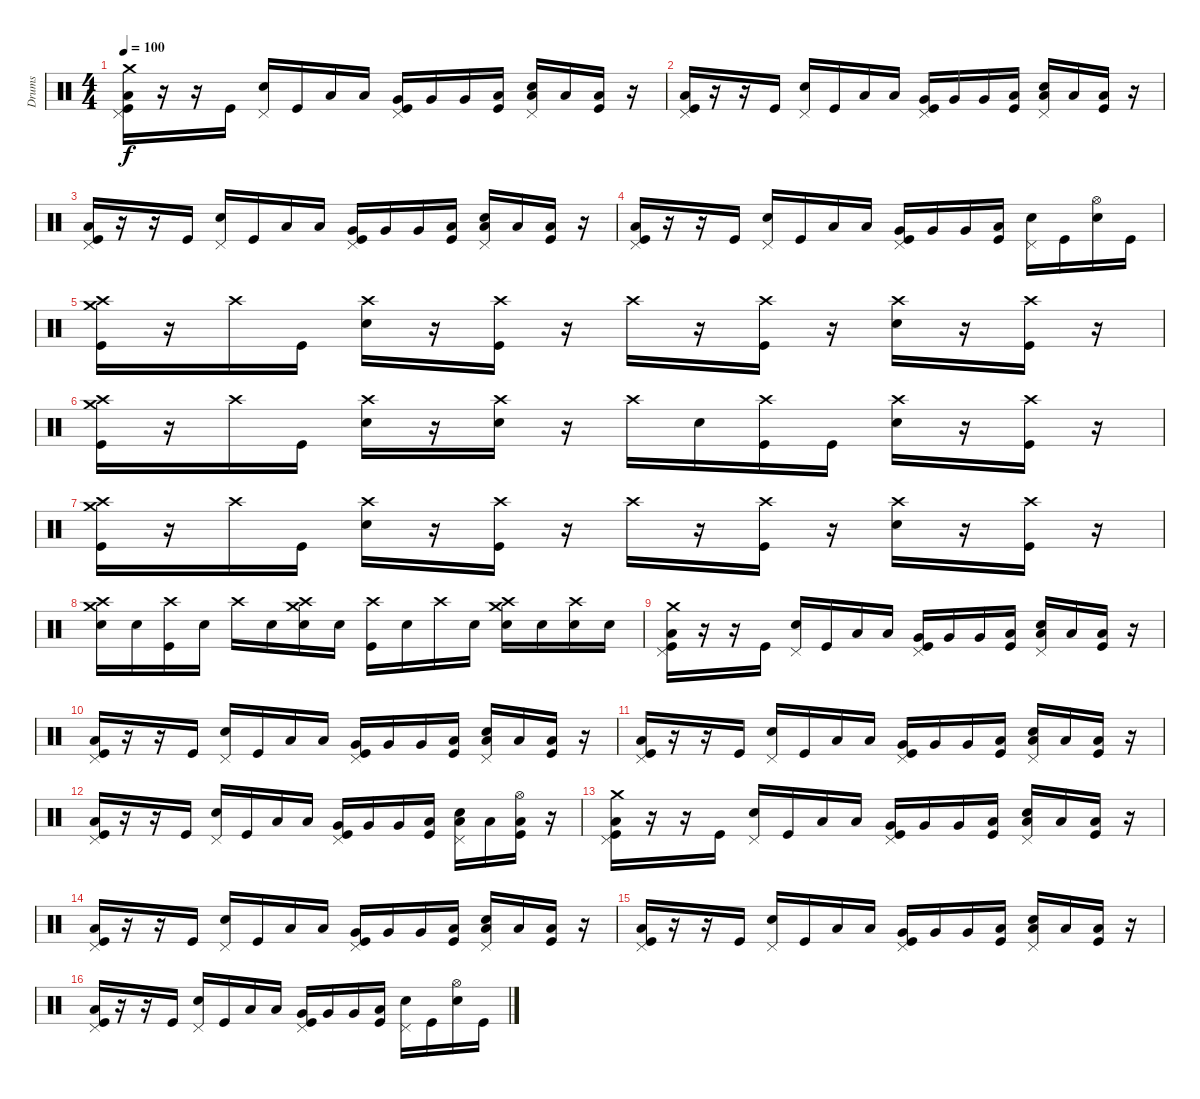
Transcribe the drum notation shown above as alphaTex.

\track ("Drums" "Drums") {instrument percussion}
\staff {score}
\articulation defaults
\ts (4 4)
\tempo 100
\clef neutral
\ks c
("Crash medium (hit)" "Pedal Hi-Hat (hit)" "Low Floor Tom (hit)" "Kick (hit)").16{dy f} r.16 r.16 "Kick (hit)".16 ("Pedal Hi-Hat (hit)" "Snare (hit) 2").16 "Kick (hit)".16 "Low Tom (hit)".16 "Low Tom (hit)".16 ("Pedal Hi-Hat (hit)" "Very Low Tom (hit)" "Kick (hit)").16 "Very Low Tom (hit)".16 "Very Low Tom (hit)".16 ("Low Floor Tom (hit)" "Kick (hit)").16 ("Pedal Hi-Hat (hit)" "Low Floor Tom (hit)" "Snare (hit) 2").16 "Low Floor Tom (hit)".16 ("Low Floor Tom (hit)" "Kick (hit)").16 r.16 |
("Pedal Hi-Hat (hit)" "Low Floor Tom (hit)" "Kick (hit)").16 r.16 r.16 "Kick (hit)".16 ("Pedal Hi-Hat (hit)" "Snare (hit) 2").16 "Kick (hit)".16 "Low Tom (hit)".16 "Low Tom (hit)".16 ("Pedal Hi-Hat (hit)" "Very Low Tom (hit)" "Kick (hit)").16 "Very Low Tom (hit)".16 "Very Low Tom (hit)".16 ("Low Floor Tom (hit)" "Kick (hit)").16 ("Pedal Hi-Hat (hit)" "Low Floor Tom (hit)" "Snare (hit) 2").16 "Low Floor Tom (hit)".16 ("Low Floor Tom (hit)" "Kick (hit)").16 r.16 |
("Pedal Hi-Hat (hit)" "Low Floor Tom (hit)" "Kick (hit)").16 r.16 r.16 "Kick (hit)".16 ("Pedal Hi-Hat (hit)" "Snare (hit) 2").16 "Kick (hit)".16 "Low Tom (hit)".16 "Low Tom (hit)".16 ("Pedal Hi-Hat (hit)" "Very Low Tom (hit)" "Kick (hit)").16 "Very Low Tom (hit)".16 "Very Low Tom (hit)".16 ("Low Floor Tom (hit)" "Kick (hit)").16 ("Pedal Hi-Hat (hit)" "Low Floor Tom (hit)" "Snare (hit) 2").16 "Low Floor Tom (hit)".16 ("Low Floor Tom (hit)" "Kick (hit)").16 r.16 |
("Pedal Hi-Hat (hit)" "Low Floor Tom (hit)" "Kick (hit)").16 r.16 r.16 "Kick (hit)".16 ("Pedal Hi-Hat (hit)" "Snare (hit) 2").16 "Kick (hit)".16 "Low Tom (hit)".16 "Low Tom (hit)".16 ("Pedal Hi-Hat (hit)" "Very Low Tom (hit)" "Kick (hit)").16 "Very Low Tom (hit)".16 "Very Low Tom (hit)".16 ("Low Floor Tom (hit)" "Kick (hit)").16 ("Pedal Hi-Hat (hit)" "Snare (hit) 2").16 "Kick (hit)".16 ("Hi-Hat (open)" "Snare (hit) 2").16 "Kick (hit)".16 |
("Crash medium (hit)" "Crash high (hit)" "Kick (hit)").16 r.16 "Crash high (hit)".16 "Kick (hit)".16 ("Crash high (hit)" "Snare (hit) 2").16 r.16 ("Crash high (hit)" "Kick (hit)").16 r.16 "Crash high (hit)".16 r.16 ("Crash high (hit)" "Kick (hit)").16 r.16 ("Crash high (hit)" "Snare (hit) 2").16 r.16 ("Crash high (hit)" "Kick (hit)").16 r.16 |
("Crash medium (hit)" "Crash high (hit)" "Kick (hit)").16 r.16 "Crash high (hit)".16 "Kick (hit)".16 ("Crash high (hit)" "Snare (hit) 2").16 r.16 ("Crash high (hit)" "Snare (hit) 2").16 r.16 "Crash high (hit)".16 "Snare (hit) 2".16 ("Crash high (hit)" "Kick (hit)").16 "Kick (hit)".16 ("Crash high (hit)" "Snare (hit) 2").16 r.16 ("Crash high (hit)" "Kick (hit)").16 r.16 |
("Crash medium (hit)" "Crash high (hit)" "Kick (hit)").16 r.16 "Crash high (hit)".16 "Kick (hit)".16 ("Crash high (hit)" "Snare (hit) 2").16 r.16 ("Crash high (hit)" "Kick (hit)").16 r.16 "Crash high (hit)".16 r.16 ("Crash high (hit)" "Kick (hit)").16 r.16 ("Crash high (hit)" "Snare (hit) 2").16 r.16 ("Crash high (hit)" "Kick (hit)").16 r.16 |
("Crash medium (hit)" "Crash high (hit)" "Snare (hit) 2").16 "Snare (hit) 2".16 ("Crash high (hit)" "Kick (hit)").16 "Snare (hit) 2".16 "Crash high (hit)".16 "Snare (hit) 2".16 ("Crash medium (hit)" "Crash high (hit)" "Snare (hit) 2").16 "Snare (hit) 2".16 ("Crash high (hit)" "Kick (hit)").16 "Snare (hit) 2".16 "Crash high (hit)".16 "Snare (hit) 2".16 ("Crash medium (hit)" "Crash high (hit)" "Snare (hit) 2").16 "Snare (hit) 2".16 ("Crash high (hit)" "Snare (hit) 2").16 "Snare (hit) 2".16 |
("Crash medium (hit)" "Pedal Hi-Hat (hit)" "Low Floor Tom (hit)" "Kick (hit)").16 r.16 r.16 "Kick (hit)".16 ("Pedal Hi-Hat (hit)" "Snare (hit) 2").16 "Kick (hit)".16 "Low Tom (hit)".16 "Low Tom (hit)".16 ("Pedal Hi-Hat (hit)" "Very Low Tom (hit)" "Kick (hit)").16 "Very Low Tom (hit)".16 "Very Low Tom (hit)".16 ("Low Floor Tom (hit)" "Kick (hit)").16 ("Pedal Hi-Hat (hit)" "Low Floor Tom (hit)" "Snare (hit) 2").16 "Low Floor Tom (hit)".16 ("Low Floor Tom (hit)" "Kick (hit)").16 r.16 |
("Pedal Hi-Hat (hit)" "Low Floor Tom (hit)" "Kick (hit)").16 r.16 r.16 "Kick (hit)".16 ("Pedal Hi-Hat (hit)" "Snare (hit) 2").16 "Kick (hit)".16 "Low Tom (hit)".16 "Low Tom (hit)".16 ("Pedal Hi-Hat (hit)" "Very Low Tom (hit)" "Kick (hit)").16 "Very Low Tom (hit)".16 "Very Low Tom (hit)".16 ("Low Floor Tom (hit)" "Kick (hit)").16 ("Pedal Hi-Hat (hit)" "Low Floor Tom (hit)" "Snare (hit) 2").16 "Low Floor Tom (hit)".16 ("Low Floor Tom (hit)" "Kick (hit)").16 r.16 |
("Pedal Hi-Hat (hit)" "Low Floor Tom (hit)" "Kick (hit)").16 r.16 r.16 "Kick (hit)".16 ("Pedal Hi-Hat (hit)" "Snare (hit) 2").16 "Kick (hit)".16 "Low Tom (hit)".16 "Low Tom (hit)".16 ("Pedal Hi-Hat (hit)" "Very Low Tom (hit)" "Kick (hit)").16 "Very Low Tom (hit)".16 "Very Low Tom (hit)".16 ("Low Floor Tom (hit)" "Kick (hit)").16 ("Pedal Hi-Hat (hit)" "Low Floor Tom (hit)" "Snare (hit) 2").16 "Low Floor Tom (hit)".16 ("Low Floor Tom (hit)" "Kick (hit)").16 r.16 |
("Pedal Hi-Hat (hit)" "Low Floor Tom (hit)" "Kick (hit)").16 r.16 r.16 "Kick (hit)".16 ("Pedal Hi-Hat (hit)" "Snare (hit) 2").16 "Kick (hit)".16 "Low Tom (hit)".16 "Low Tom (hit)".16 ("Pedal Hi-Hat (hit)" "Very Low Tom (hit)" "Kick (hit)").16 "Very Low Tom (hit)".16 "Very Low Tom (hit)".16 ("Low Floor Tom (hit)" "Kick (hit)").16 ("Pedal Hi-Hat (hit)" "Low Floor Tom (hit)" "Snare (hit) 2").16 "Low Floor Tom (hit)".16 ("Hi-Hat (open)" "Low Floor Tom (hit)" "Kick (hit)").16 r.16 |
("Crash medium (hit)" "Pedal Hi-Hat (hit)" "Low Floor Tom (hit)" "Kick (hit)").16 r.16 r.16 "Kick (hit)".16 ("Pedal Hi-Hat (hit)" "Snare (hit) 2").16 "Kick (hit)".16 "Low Tom (hit)".16 "Low Tom (hit)".16 ("Pedal Hi-Hat (hit)" "Very Low Tom (hit)" "Kick (hit)").16 "Very Low Tom (hit)".16 "Very Low Tom (hit)".16 ("Low Floor Tom (hit)" "Kick (hit)").16 ("Pedal Hi-Hat (hit)" "Low Floor Tom (hit)" "Snare (hit) 2").16 "Low Floor Tom (hit)".16 ("Low Floor Tom (hit)" "Kick (hit)").16 r.16 |
("Pedal Hi-Hat (hit)" "Low Floor Tom (hit)" "Kick (hit)").16 r.16 r.16 "Kick (hit)".16 ("Pedal Hi-Hat (hit)" "Snare (hit) 2").16 "Kick (hit)".16 "Low Tom (hit)".16 "Low Tom (hit)".16 ("Pedal Hi-Hat (hit)" "Very Low Tom (hit)" "Kick (hit)").16 "Very Low Tom (hit)".16 "Very Low Tom (hit)".16 ("Low Floor Tom (hit)" "Kick (hit)").16 ("Pedal Hi-Hat (hit)" "Low Floor Tom (hit)" "Snare (hit) 2").16 "Low Floor Tom (hit)".16 ("Low Floor Tom (hit)" "Kick (hit)").16 r.16 |
("Pedal Hi-Hat (hit)" "Low Floor Tom (hit)" "Kick (hit)").16 r.16 r.16 "Kick (hit)".16 ("Pedal Hi-Hat (hit)" "Snare (hit) 2").16 "Kick (hit)".16 "Low Tom (hit)".16 "Low Tom (hit)".16 ("Pedal Hi-Hat (hit)" "Very Low Tom (hit)" "Kick (hit)").16 "Very Low Tom (hit)".16 "Very Low Tom (hit)".16 ("Low Floor Tom (hit)" "Kick (hit)").16 ("Pedal Hi-Hat (hit)" "Low Floor Tom (hit)" "Snare (hit) 2").16 "Low Floor Tom (hit)".16 ("Low Floor Tom (hit)" "Kick (hit)").16 r.16 |
("Pedal Hi-Hat (hit)" "Low Floor Tom (hit)" "Kick (hit)").16 r.16 r.16 "Kick (hit)".16 ("Pedal Hi-Hat (hit)" "Snare (hit) 2").16 "Kick (hit)".16 "Low Tom (hit)".16 "Low Tom (hit)".16 ("Pedal Hi-Hat (hit)" "Very Low Tom (hit)" "Kick (hit)").16 "Very Low Tom (hit)".16 "Very Low Tom (hit)".16 ("Low Floor Tom (hit)" "Kick (hit)").16 ("Pedal Hi-Hat (hit)" "Snare (hit) 2").16 "Kick (hit)".16 ("Hi-Hat (open)" "Snare (hit) 2").16 "Kick (hit)".16
